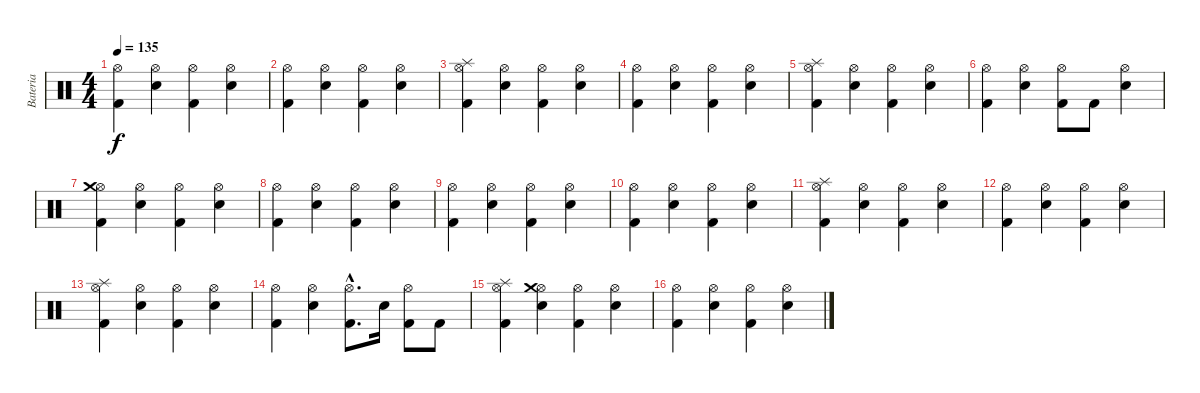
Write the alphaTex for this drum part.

\track ("Bateria" "Bateria") {instrument percussion}
\staff {score}
\articulation defaults
\ts (4 4)
\tempo 135
\clef neutral
\ks c
("Kick (hit) 2" "Hi-Hat (open)").4{dy f} ("Electric Snare (hit)" "Hi-Hat (open)").4 ("Kick (hit) 2" "Hi-Hat (open)").4 ("Electric Snare (hit)" "Hi-Hat (open)").4 |
("Kick (hit) 2" "Hi-Hat (open)").4 ("Electric Snare (hit)" "Hi-Hat (open)").4 ("Kick (hit) 2" "Hi-Hat (open)").4 ("Electric Snare (hit)" "Hi-Hat (open)").4 |
("Kick (hit) 2" "Hi-Hat (open)" "Splash (hit)").4 ("Electric Snare (hit)" "Hi-Hat (open)").4 ("Kick (hit) 2" "Hi-Hat (open)").4 ("Electric Snare (hit)" "Hi-Hat (open)").4 |
("Kick (hit) 2" "Hi-Hat (open)").4 ("Electric Snare (hit)" "Hi-Hat (open)").4 ("Kick (hit) 2" "Hi-Hat (open)").4 ("Electric Snare (hit)" "Hi-Hat (open)").4 |
("Kick (hit) 2" "Hi-Hat (open)" "Splash (hit)").4 ("Electric Snare (hit)" "Hi-Hat (open)").4 ("Kick (hit) 2" "Hi-Hat (open)").4 ("Electric Snare (hit)" "Hi-Hat (open)").4 |
("Kick (hit) 2" "Hi-Hat (open)").4 ("Electric Snare (hit)" "Hi-Hat (open)").4 ("Kick (hit) 2" "Hi-Hat (open)").8 "Kick (hit) 2".8 ("Electric Snare (hit)" "Hi-Hat (open)").4 |
("Kick (hit) 2" "Hi-Hat (open)" "Crash medium (hit)").4 ("Electric Snare (hit)" "Hi-Hat (open)").4 ("Kick (hit) 2" "Hi-Hat (open)").4 ("Electric Snare (hit)" "Hi-Hat (open)").4 |
("Kick (hit) 2" "Hi-Hat (open)").4 ("Electric Snare (hit)" "Hi-Hat (open)").4 ("Kick (hit) 2" "Hi-Hat (open)").4 ("Electric Snare (hit)" "Hi-Hat (open)").4 |
("Kick (hit) 2" "Hi-Hat (open)").4 ("Electric Snare (hit)" "Hi-Hat (open)").4 ("Kick (hit) 2" "Hi-Hat (open)").4 ("Electric Snare (hit)" "Hi-Hat (open)").4 |
("Kick (hit) 2" "Hi-Hat (open)").4 ("Electric Snare (hit)" "Hi-Hat (open)").4 ("Kick (hit) 2" "Hi-Hat (open)").4 ("Electric Snare (hit)" "Hi-Hat (open)").4 |
("Kick (hit) 2" "Hi-Hat (open)" "Splash (hit)").4 ("Electric Snare (hit)" "Hi-Hat (open)").4 ("Kick (hit) 2" "Hi-Hat (open)").4 ("Electric Snare (hit)" "Hi-Hat (open)").4 |
("Kick (hit) 2" "Hi-Hat (open)").4 ("Electric Snare (hit)" "Hi-Hat (open)").4 ("Kick (hit) 2" "Hi-Hat (open)").4 ("Electric Snare (hit)" "Hi-Hat (open)").4 |
("Kick (hit) 2" "Hi-Hat (open)" "Splash (hit)").4 ("Electric Snare (hit)" "Hi-Hat (open)").4 ("Kick (hit) 2" "Hi-Hat (open)").4 ("Electric Snare (hit)" "Hi-Hat (open)").4 |
("Kick (hit) 2" "Hi-Hat (open)").4 ("Electric Snare (hit)" "Hi-Hat (open)").4 ("Kick (hit) 2"{hac} "Hi-Hat (open)"{hac}).8{d} "Electric Snare (hit)".16 ("Kick (hit) 2" "Hi-Hat (open)").8 "Kick (hit) 2".8 |
("Kick (hit) 2" "Hi-Hat (open)" "Splash (hit)").4 ("Electric Snare (hit)" "Hi-Hat (open)" "Crash medium (hit)").4 ("Kick (hit) 2" "Hi-Hat (open)").4 ("Electric Snare (hit)" "Hi-Hat (open)").4 |
("Kick (hit) 2" "Hi-Hat (open)").4 ("Electric Snare (hit)" "Hi-Hat (open)").4 ("Kick (hit) 2" "Hi-Hat (open)").4 ("Electric Snare (hit)" "Hi-Hat (open)").4
